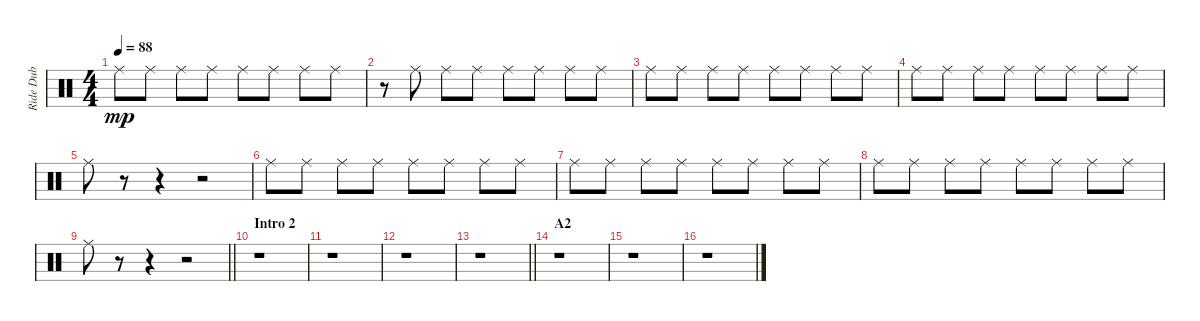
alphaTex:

\track ("Ride Dub" "Ride Dub") {instrument percussion}
\staff {score}
\articulation defaults
\ts (4 4)
\tempo 88
\clef neutral
\ks c "Ride (middle)".8{dy mp} "Ride (middle)".8 "Ride (middle)".8 "Ride (middle)".8 "Ride (middle)".8 "Ride (middle)".8 "Ride (middle)".8 "Ride (middle)".8
|
r.8 "Ride (middle)".8 "Ride (middle)".8 "Ride (middle)".8 "Ride (middle)".8 "Ride (middle)".8 "Ride (middle)".8 "Ride (middle)".8 |
"Ride (middle)".8 "Ride (middle)".8 "Ride (middle)".8 "Ride (middle)".8 "Ride (middle)".8 "Ride (middle)".8 "Ride (middle)".8 "Ride (middle)".8 |
"Ride (middle)".8 "Ride (middle)".8 "Ride (middle)".8 "Ride (middle)".8 "Ride (middle)".8 "Ride (middle)".8 "Ride (middle)".8 "Ride (middle)".8 |
"Ride (middle)".8 r.8 r.4 r.2 |
"Ride (middle)".8 "Ride (middle)".8 "Ride (middle)".8 "Ride (middle)".8 "Ride (middle)".8 "Ride (middle)".8 "Ride (middle)".8 "Ride (middle)".8 |
"Ride (middle)".8 "Ride (middle)".8 "Ride (middle)".8 "Ride (middle)".8 "Ride (middle)".8 "Ride (middle)".8 "Ride (middle)".8 "Ride (middle)".8 |
"Ride (middle)".8 "Ride (middle)".8 "Ride (middle)".8 "Ride (middle)".8 "Ride (middle)".8 "Ride (middle)".8 "Ride (middle)".8 "Ride (middle)".8 |
\barLineRight lightlight "Ride (middle)".8
r.8 r.4 r.2 |
\section ("" "Intro 2")
r.1 |
r.1 |
r.1 |
\barLineRight lightlight
r.1 |
\section ("" "A2")
r.1 |
r.1 |
r.1
